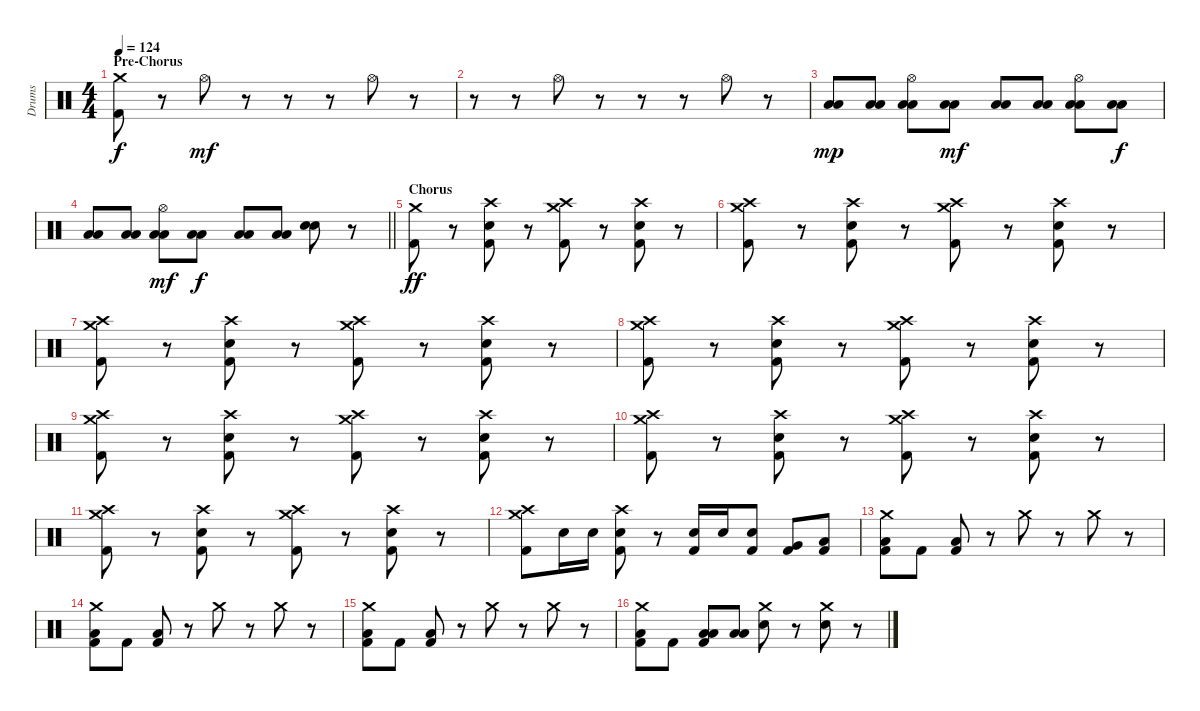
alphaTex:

\track ("Drums" "Drums") {instrument percussion}
\staff {score}
\articulation defaults
\ts (4 4)
\section ("" "Pre-Chorus")
\tempo 124
\clef neutral
\ks c
("Crash medium (hit)" "Kick (hit) 2").8{dy f} r.8 "Hi-Hat (open)".8{dy mf} r.8 r.8 r.8 "Hi-Hat (open)".8 r.8 |
r.8 r.8 "Hi-Hat (open)".8 r.8 r.8 r.8 "Hi-Hat (open)".8 r.8 |
("Low Floor Tom (hit)" "Low Floor Tom (hit)").8{dy mp} ("Low Floor Tom (hit)" "Low Floor Tom (hit)").8 ("Hi-Hat (open)" "Low Floor Tom (hit)" "Low Floor Tom (hit)").8 ("Low Floor Tom (hit)" "Low Floor Tom (hit)").8{dy mf} ("Low Floor Tom (hit)" "Low Floor Tom (hit)").8 ("Low Floor Tom (hit)" "Low Floor Tom (hit)").8 ("Hi-Hat (open)" "Low Floor Tom (hit)" "Low Floor Tom (hit)").8 ("Low Floor Tom (hit)" "Low Floor Tom (hit)").8{dy f} |
\barLineRight lightlight
("Low Floor Tom (hit)" "Low Floor Tom (hit)").8 ("Low Floor Tom (hit)" "Low Floor Tom (hit)").8 ("Hi-Hat (open)" "Low Floor Tom (hit)" "Low Floor Tom (hit)").8{dy mf} ("Low Floor Tom (hit)" "Low Floor Tom (hit)").8{dy f} ("Low Floor Tom (hit)" "Low Floor Tom (hit)").8 ("Low Floor Tom (hit)" "Low Floor Tom (hit)").8 ("Electric Snare (hit)" "Electric Snare (hit)").8 r.8 |
\section ("" "Chorus")
("Crash medium (hit)" "Kick (hit) 2").8{dy ff} r.8 ("Crash high (hit)" "Electric Snare (hit)" "Kick (hit) 2").8 r.8 ("Crash medium (hit)" "Crash high (hit)" "Kick (hit) 2").8 r.8 ("Crash high (hit)" "Electric Snare (hit)" "Kick (hit) 2").8 r.8 |
("Crash medium (hit)" "Crash high (hit)" "Kick (hit) 2").8 r.8 ("Crash high (hit)" "Electric Snare (hit)" "Kick (hit) 2").8 r.8 ("Crash medium (hit)" "Crash high (hit)" "Kick (hit) 2").8 r.8 ("Crash high (hit)" "Electric Snare (hit)" "Kick (hit) 2").8 r.8 |
("Crash medium (hit)" "Crash high (hit)" "Kick (hit) 2").8 r.8 ("Crash high (hit)" "Electric Snare (hit)" "Kick (hit) 2").8 r.8 ("Crash medium (hit)" "Crash high (hit)" "Kick (hit) 2").8 r.8 ("Crash high (hit)" "Electric Snare (hit)" "Kick (hit) 2").8 r.8 |
("Crash medium (hit)" "Crash high (hit)" "Kick (hit) 2").8 r.8 ("Crash high (hit)" "Electric Snare (hit)" "Kick (hit) 2").8 r.8 ("Crash medium (hit)" "Crash high (hit)" "Kick (hit) 2").8 r.8 ("Crash high (hit)" "Electric Snare (hit)" "Kick (hit) 2").8 r.8 |
("Crash medium (hit)" "Crash high (hit)" "Kick (hit) 2").8 r.8 ("Crash high (hit)" "Electric Snare (hit)" "Kick (hit) 2").8 r.8 ("Crash medium (hit)" "Crash high (hit)" "Kick (hit) 2").8 r.8 ("Crash high (hit)" "Electric Snare (hit)" "Kick (hit) 2").8 r.8 |
("Crash medium (hit)" "Crash high (hit)" "Kick (hit) 2").8 r.8 ("Crash high (hit)" "Electric Snare (hit)" "Kick (hit) 2").8 r.8 ("Crash medium (hit)" "Crash high (hit)" "Kick (hit) 2").8 r.8 ("Crash high (hit)" "Electric Snare (hit)" "Kick (hit) 2").8 r.8 |
("Crash medium (hit)" "Crash high (hit)" "Kick (hit) 2").8 r.8 ("Crash high (hit)" "Electric Snare (hit)" "Kick (hit) 2").8 r.8 ("Crash medium (hit)" "Crash high (hit)" "Kick (hit) 2").8 r.8 ("Crash high (hit)" "Electric Snare (hit)" "Kick (hit) 2").8 r.8 |
("Crash medium (hit)" "Crash high (hit)" "Kick (hit) 2").8 "Electric Snare (hit)".16 "Electric Snare (hit)".16 ("Crash high (hit)" "Electric Snare (hit)" "Kick (hit) 2").8 r.8 ("Electric Snare (hit)" "Kick (hit) 2").16 "Electric Snare (hit)".16 ("Electric Snare (hit)" "Kick (hit) 2").8 ("Very Low Tom (hit)" "Kick (hit) 2").8 ("Low Floor Tom (hit)" "Kick (hit) 2").8 |
("Crash medium (hit)" "Low Floor Tom (hit)" "Kick (hit) 2").8 "Kick (hit) 2".8 ("Low Floor Tom (hit)" "Kick (hit) 2").8 r.8 "Crash medium (hit)".8 r.8 "Crash medium (hit)".8 r.8 |
("Crash medium (hit)" "Low Floor Tom (hit)" "Kick (hit) 2").8 "Kick (hit) 2".8 ("Low Floor Tom (hit)" "Kick (hit) 2").8 r.8 "Crash medium (hit)".8 r.8 "Crash medium (hit)".8 r.8 |
("Crash medium (hit)" "Low Floor Tom (hit)" "Kick (hit) 2").8 "Kick (hit) 2".8 ("Low Floor Tom (hit)" "Kick (hit) 2").8 r.8 "Crash medium (hit)".8 r.8 "Crash medium (hit)".8 r.8 |
("Crash medium (hit)" "Low Floor Tom (hit)" "Kick (hit) 2").8 "Kick (hit) 2".8 ("Low Floor Tom (hit)" "Low Floor Tom (hit)" "Kick (hit) 2").8 ("Low Floor Tom (hit)" "Low Floor Tom (hit)").8 ("Crash medium (hit)" "Electric Snare (hit)").8 r.8 ("Crash medium (hit)" "Electric Snare (hit)").8 r.8
